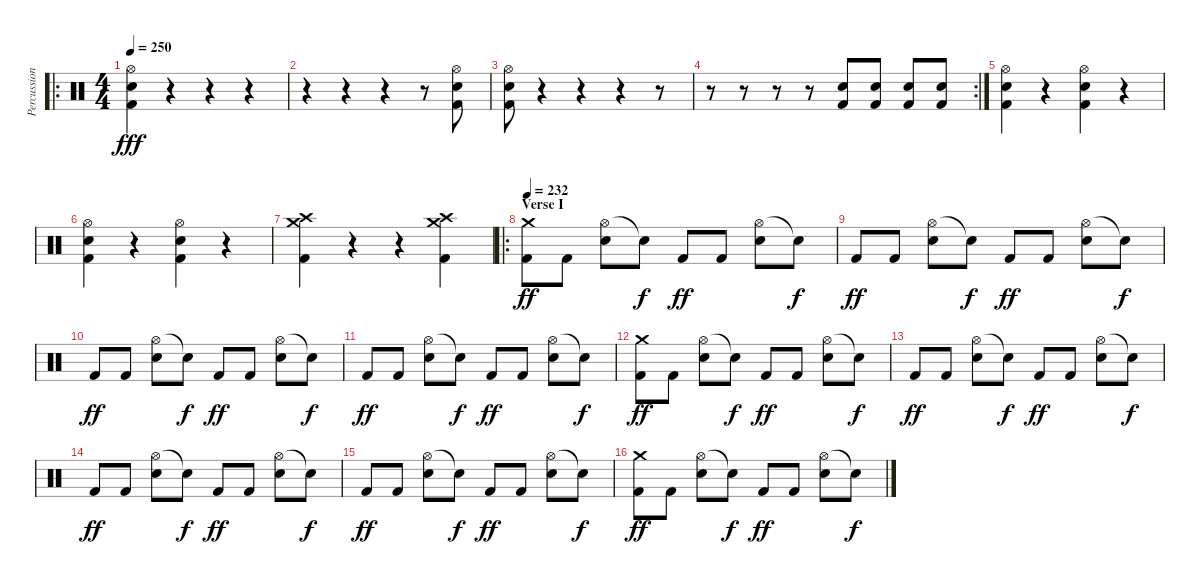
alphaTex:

\track ("Percussion" "Percussion") {instrument percussion}
\staff {score}
\articulation defaults
\ro
\ts (4 4)
\tempo 250
\clef neutral
\ks c
("Hi-Hat (open)" "Snare (hit) 2" "Kick (hit) 2").4{dy fff} r.4 r.4 r.4 |
r.4 r.4 r.4 r.8 ("Hi-Hat (open)" "Snare (hit) 2" "Kick (hit) 2").8 |
("Hi-Hat (open)" "Snare (hit) 2" "Kick (hit) 2").8 r.4 r.4 r.4 r.8 |
\rc 2
r.8 r.8 r.8 r.8 ("Snare (hit) 2" "Kick (hit) 2").8 ("Snare (hit) 2" "Kick (hit) 2").8 ("Snare (hit) 2" "Kick (hit) 2").8 ("Snare (hit) 2" "Kick (hit) 2").8 |
("Hi-Hat (open)" "Snare (hit) 2" "Kick (hit) 2").4 r.4 ("Hi-Hat (open)" "Snare (hit) 2" "Kick (hit) 2").4 r.4 |
("Hi-Hat (open)" "Snare (hit) 2" "Kick (hit) 2").4 r.4 ("Hi-Hat (open)" "Snare (hit) 2" "Kick (hit) 2").4 r.4 |
("Crash high (hit)" "Crash medium (hit)" "Kick (hit) 2").4 r.4 r.4 ("Crash high (hit)" "Crash medium (hit)" "Kick (hit) 2").4 |
\ro
\section ("" "Verse I")
\tempo 232
("Crash medium (hit)" "Kick (hit) 2").8{dy ff} "Kick (hit) 2".8 ("Hi-Hat (open)" "Snare (hit) 2").8 "Snare (hit)"{t}.8{dy f} "Kick (hit) 2".8{dy ff} "Kick (hit) 2".8 ("Hi-Hat (open)" "Snare (hit) 2").8 "Snare (hit)"{t}.8{dy f} |
"Kick (hit) 2".8{dy ff} "Kick (hit) 2".8 ("Hi-Hat (open)" "Snare (hit) 2").8 "Snare (hit)"{t}.8{dy f} "Kick (hit) 2".8{dy ff} "Kick (hit) 2".8 ("Hi-Hat (open)" "Snare (hit) 2").8 "Snare (hit)"{t}.8{dy f} |
"Kick (hit) 2".8{dy ff} "Kick (hit) 2".8 ("Hi-Hat (open)" "Snare (hit) 2").8 "Snare (hit)"{t}.8{dy f} "Kick (hit) 2".8{dy ff} "Kick (hit) 2".8 ("Hi-Hat (open)" "Snare (hit) 2").8 "Snare (hit)"{t}.8{dy f} |
"Kick (hit) 2".8{dy ff} "Kick (hit) 2".8 ("Hi-Hat (open)" "Snare (hit) 2").8 "Snare (hit)"{t}.8{dy f} "Kick (hit) 2".8{dy ff} "Kick (hit) 2".8 ("Hi-Hat (open)" "Snare (hit) 2").8 "Snare (hit)"{t}.8{dy f} |
("Crash medium (hit)" "Kick (hit) 2").8{dy ff} "Kick (hit) 2".8 ("Hi-Hat (open)" "Snare (hit) 2").8 "Snare (hit)"{t}.8{dy f} "Kick (hit) 2".8{dy ff} "Kick (hit) 2".8 ("Hi-Hat (open)" "Snare (hit) 2").8 "Snare (hit)"{t}.8{dy f} |
"Kick (hit) 2".8{dy ff} "Kick (hit) 2".8 ("Hi-Hat (open)" "Snare (hit) 2").8 "Snare (hit)"{t}.8{dy f} "Kick (hit) 2".8{dy ff} "Kick (hit) 2".8 ("Hi-Hat (open)" "Snare (hit) 2").8 "Snare (hit)"{t}.8{dy f} |
"Kick (hit) 2".8{dy ff} "Kick (hit) 2".8 ("Hi-Hat (open)" "Snare (hit) 2").8 "Snare (hit)"{t}.8{dy f} "Kick (hit) 2".8{dy ff} "Kick (hit) 2".8 ("Hi-Hat (open)" "Snare (hit) 2").8 "Snare (hit)"{t}.8{dy f} |
"Kick (hit) 2".8{dy ff} "Kick (hit) 2".8 ("Hi-Hat (open)" "Snare (hit) 2").8 "Snare (hit)"{t}.8{dy f} "Kick (hit) 2".8{dy ff} "Kick (hit) 2".8 ("Hi-Hat (open)" "Snare (hit) 2").8 "Snare (hit)"{t}.8{dy f} |
("Crash medium (hit)" "Kick (hit) 2").8{dy ff} "Kick (hit) 2".8 ("Hi-Hat (open)" "Snare (hit) 2").8 "Snare (hit)"{t}.8{dy f} "Kick (hit) 2".8{dy ff} "Kick (hit) 2".8 ("Hi-Hat (open)" "Snare (hit) 2").8 "Snare (hit)"{t}.8{dy f}
